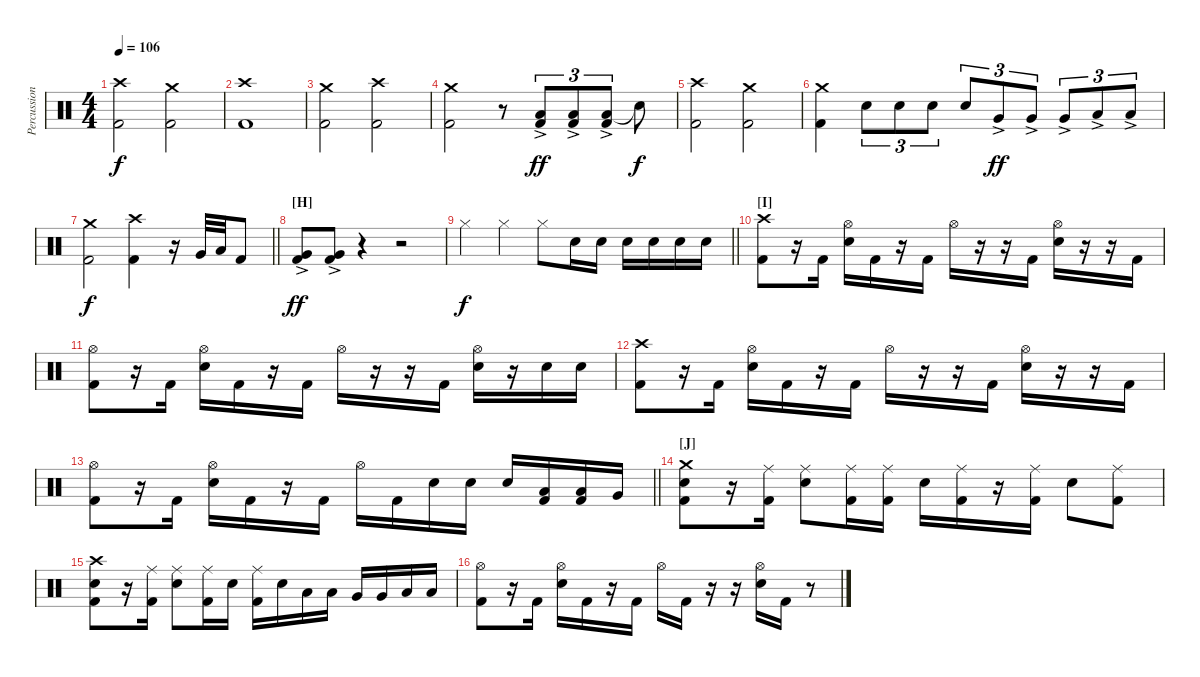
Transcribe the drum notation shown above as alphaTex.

\track ("Percussions" "Percussion") {instrument percussion}
\staff {score}
\articulation defaults
\ts (4 4)
\tempo 106
\clef neutral
\ks c
("Crash high (hit)" "Kick (hit) 2").2{dy f} ("Crash medium (hit)" "Kick (hit) 2").2 |
("Crash high (hit)" "Kick (hit) 2").1 |
("Crash medium (hit)" "Kick (hit) 2").2 ("Crash high (hit)" "Kick (hit) 2").2 |
("Crash medium (hit)" "Kick (hit) 2").2 r.8 ("Low Floor Tom (hit)"{ac} "Kick (hit) 2").8{tu (3 2) dy ff} ("Low Floor Tom (hit)"{ac} "Kick (hit) 2").8{tu (3 2)} ("Low Floor Tom (hit)"{ac} "Kick (hit) 2").8{tu (3 2)} "Snare (hit)"{t}.8{dy f} |
("Crash high (hit)" "Kick (hit) 2").2 ("Crash medium (hit)" "Kick (hit) 2").2 |
("Crash medium (hit)" "Kick (hit) 2").4 "Electric Snare (hit)".8{tu (3 2)} "Electric Snare (hit)".8{tu (3 2)} "Electric Snare (hit)".8{tu (3 2)} "Electric Snare (hit)".8{tu (3 2)} "Very Low Tom (hit)"{ac}.8{tu (3 2) dy ff} "Very Low Tom (hit)"{ac}.8{tu (3 2)} "Very Low Tom (hit)"{ac}.8{tu (3 2)} "Low Floor Tom (hit)"{ac}.8{tu (3 2)} "Low Floor Tom (hit)"{ac}.8{tu (3 2)} |
\barLineRight lightlight
("Crash medium (hit)" "Kick (hit) 2").2{dy f} ("Crash high (hit)" "Kick (hit) 2").4 r.16 "Very Low Tom (hit)".32 "Low Floor Tom (hit)".32 "Kick (hit) 2".8 |
\section ("" "[H]")
("Very Low Tom (hit)"{ac} "Kick (hit) 2").8{dy ff} ("Very Low Tom (hit)"{ac} "Kick (hit) 2").8 r.4 r.2 |
\barLineRight lightlight "Hi-Hat (closed)".4{dy f} "Hi-Hat (closed)".4 "Hi-Hat (closed)".8 "Electric Snare (hit)".16 "Electric Snare (hit)".16 "Electric Snare (hit)".16 "Electric Snare (hit)".16 "Electric Snare (hit)".16 "Electric Snare (hit)".16
|
\section ("" "[I]")
("Crash high (hit)" "Kick (hit) 2").8 r.16 "Kick (hit) 2".16 ("Hi-Hat (open)" "Electric Snare (hit)").16 "Kick (hit) 2".16 r.16 "Kick (hit) 2".16 "Hi-Hat (open)".16 r.16 r.16 "Kick (hit) 2".16 ("Hi-Hat (open)" "Electric Snare (hit)").16 r.16 r.16 "Kick (hit) 2".16 |
("Hi-Hat (open)" "Kick (hit) 2").8 r.16 "Kick (hit) 2".16 ("Hi-Hat (open)" "Electric Snare (hit)").16 "Kick (hit) 2".16 r.16 "Kick (hit) 2".16 "Hi-Hat (open)".16 r.16 r.16 "Kick (hit) 2".16 ("Hi-Hat (open)" "Electric Snare (hit)").16 r.16 "Electric Snare (hit)".16 "Electric Snare (hit)".16 |
("Crash high (hit)" "Kick (hit) 2").8 r.16 "Kick (hit) 2".16 ("Hi-Hat (open)" "Electric Snare (hit)").16 "Kick (hit) 2".16 r.16 "Kick (hit) 2".16 "Hi-Hat (open)".16 r.16 r.16 "Kick (hit) 2".16 ("Hi-Hat (open)" "Electric Snare (hit)").16 r.16 r.16 "Kick (hit) 2".16 |
\barLineRight lightlight
("Hi-Hat (open)" "Kick (hit) 2").8 r.16 "Kick (hit) 2".16 ("Hi-Hat (open)" "Electric Snare (hit)").16 "Kick (hit) 2".16 r.16 "Kick (hit) 2".16 "Hi-Hat (open)".16 "Kick (hit) 2".16 "Electric Snare (hit)".16 "Electric Snare (hit)".16 "Electric Snare (hit)".16 ("Low Tom (hit)" "Kick (hit) 2").16 ("Low Tom (hit)" "Kick (hit) 2").16 "Very Low Tom (hit)".16 |
\section ("" "[J]")
("Crash medium (hit)" "Electric Snare (hit)" "Kick (hit) 2").8 r.16 ("Ride (middle)" "Kick (hit) 2").16 ("Ride (middle)" "Electric Snare (hit)").8 ("Ride (middle)" "Kick (hit) 2").16 ("Ride (middle)" "Kick (hit) 2").16 "Electric Snare (hit)".16 ("Ride (middle)" "Kick (hit) 2").16 r.16 ("Ride (middle)" "Kick (hit) 2").16 "Electric Snare (hit)".8 ("Ride (middle)" "Kick (hit) 2").8 |
("Crash high (hit)" "Electric Snare (hit)" "Kick (hit) 2").8 r.16 ("Ride (middle)" "Kick (hit) 2").16 ("Ride (middle)" "Electric Snare (hit)").8 ("Ride (middle)" "Kick (hit) 2").16 "Electric Snare (hit)".16 ("Ride (middle)" "Kick (hit) 2").16 "Electric Snare (hit)".16 "Low Tom (hit)".16 "Low Tom (hit)".16 "Very Low Tom (hit)".16 "Very Low Tom (hit)".16 "Low Floor Tom (hit)".16 "Low Floor Tom (hit)".16 |
("Hi-Hat (open)" "Kick (hit) 2").8 r.16 "Kick (hit) 2".16 ("Hi-Hat (open)" "Electric Snare (hit)").16 "Kick (hit) 2".16 r.16 "Kick (hit) 2".16 "Hi-Hat (open)".16 "Kick (hit) 2".16 r.16 r.16 ("Hi-Hat (open)" "Electric Snare (hit)").16 "Kick (hit) 2".16 r.8
